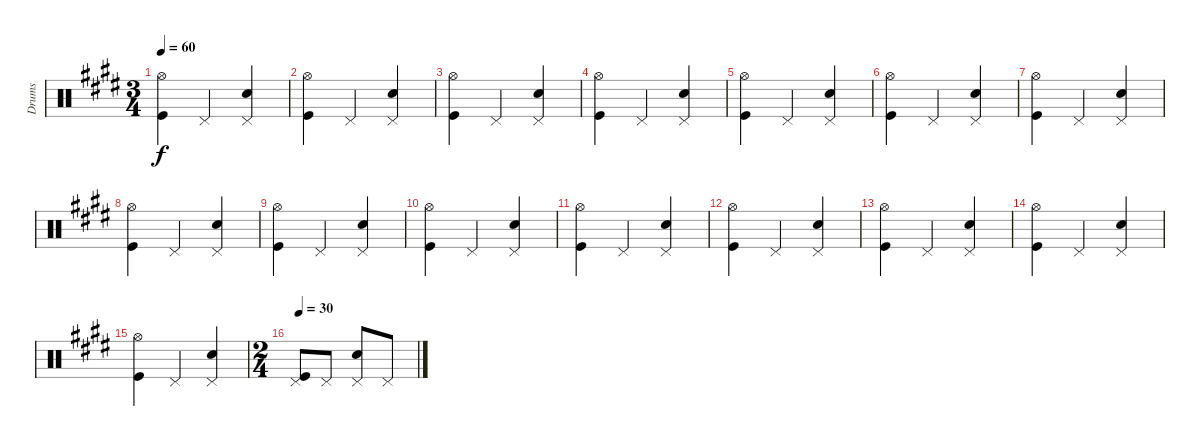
\track ("Drums" "Drums") {instrument percussion}
\staff {score}
\articulation defaults
\ts (3 4)
\tempo 60
\clef neutral
\ks c#minor
("Hi-Hat (open)" "Kick (hit)").4{dy f} "Pedal Hi-Hat (hit)".4 ("Pedal Hi-Hat (hit)" "Snare (hit) 2").4 |
("Hi-Hat (open)" "Kick (hit)").4 "Pedal Hi-Hat (hit)".4 ("Pedal Hi-Hat (hit)" "Snare (hit) 2").4 |
("Hi-Hat (open)" "Kick (hit)").4 "Pedal Hi-Hat (hit)".4 ("Pedal Hi-Hat (hit)" "Snare (hit) 2").4 |
("Hi-Hat (open)" "Kick (hit)").4 "Pedal Hi-Hat (hit)".4 ("Pedal Hi-Hat (hit)" "Snare (hit) 2").4 |
("Hi-Hat (open)" "Kick (hit)").4 "Pedal Hi-Hat (hit)".4 ("Pedal Hi-Hat (hit)" "Snare (hit) 2").4 |
("Hi-Hat (open)" "Kick (hit)").4 "Pedal Hi-Hat (hit)".4 ("Pedal Hi-Hat (hit)" "Snare (hit) 2").4 |
("Hi-Hat (open)" "Kick (hit)").4 "Pedal Hi-Hat (hit)".4 ("Pedal Hi-Hat (hit)" "Snare (hit) 2").4 |
("Hi-Hat (open)" "Kick (hit)").4 "Pedal Hi-Hat (hit)".4 ("Pedal Hi-Hat (hit)" "Snare (hit) 2").4 |
("Hi-Hat (open)" "Kick (hit)").4 "Pedal Hi-Hat (hit)".4 ("Pedal Hi-Hat (hit)" "Snare (hit) 2").4 |
("Hi-Hat (open)" "Kick (hit)").4 "Pedal Hi-Hat (hit)".4 ("Pedal Hi-Hat (hit)" "Snare (hit) 2").4 |
("Hi-Hat (open)" "Kick (hit)").4 "Pedal Hi-Hat (hit)".4 ("Pedal Hi-Hat (hit)" "Snare (hit) 2").4 |
("Hi-Hat (open)" "Kick (hit)").4 "Pedal Hi-Hat (hit)".4 ("Pedal Hi-Hat (hit)" "Snare (hit) 2").4 |
("Hi-Hat (open)" "Kick (hit)").4 "Pedal Hi-Hat (hit)".4 ("Pedal Hi-Hat (hit)" "Snare (hit) 2").4 |
("Hi-Hat (open)" "Kick (hit)").4 "Pedal Hi-Hat (hit)".4 ("Pedal Hi-Hat (hit)" "Snare (hit) 2").4 |
("Hi-Hat (open)" "Kick (hit)").4 "Pedal Hi-Hat (hit)".4 ("Pedal Hi-Hat (hit)" "Snare (hit) 2").4 |
\ts (2 4)
\tempo 30
("Pedal Hi-Hat (hit)" "Kick (hit)").8 "Pedal Hi-Hat (hit)".8 ("Pedal Hi-Hat (hit)" "Snare (hit) 2").8 "Pedal Hi-Hat (hit)".8
